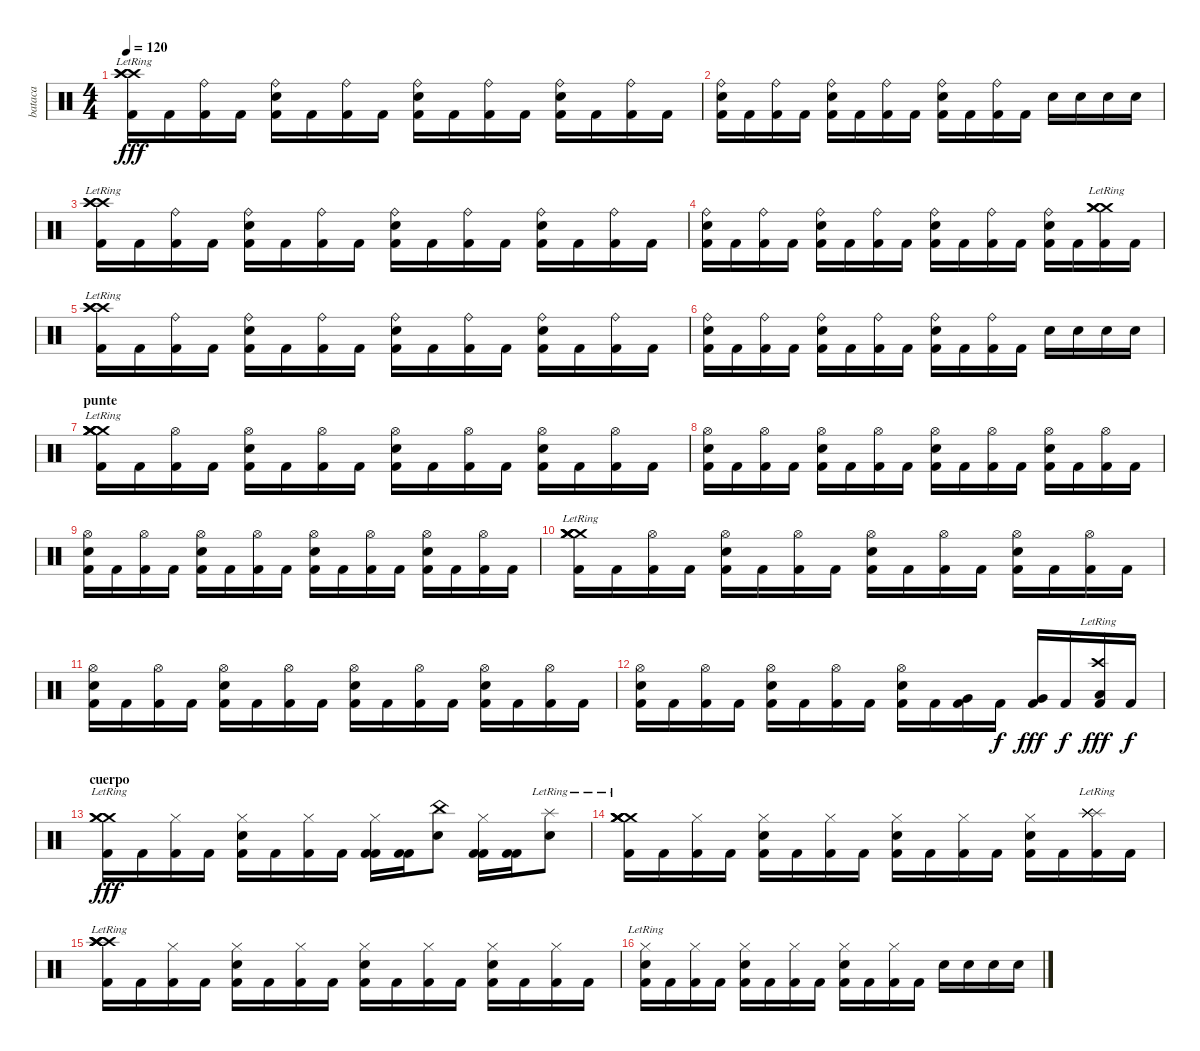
\track ("bataca" "bataca") {instrument percussion}
\staff {score}
\articulation defaults
\ts (4 4)
\tempo 120
\clef neutral
\ks c
("Kick (hit) 2" "Crash high (hit)"{lr} "Crash high (hit)"{lr} "Crash high (hit)"{lr}).16{dy fff} "Kick (hit) 2".16 ("Kick (hit) 2" "Ride (bell)").16 "Kick (hit) 2".16 ("Kick (hit) 2" "Ride (bell)" "Electric Snare (hit)").16 "Kick (hit) 2".16 ("Kick (hit) 2" "Ride (bell)").16 "Kick (hit) 2".16 ("Kick (hit) 2" "Ride (bell)" "Electric Snare (hit)").16 "Kick (hit) 2".16 ("Kick (hit) 2" "Ride (bell)").16 "Kick (hit) 2".16 ("Kick (hit) 2" "Ride (bell)" "Electric Snare (hit)").16 "Kick (hit) 2".16 ("Kick (hit) 2" "Ride (bell)").16 "Kick (hit) 2".16 |
("Kick (hit) 2" "Ride (bell)" "Electric Snare (hit)").16 "Kick (hit) 2".16 ("Kick (hit) 2" "Ride (bell)").16 "Kick (hit) 2".16 ("Kick (hit) 2" "Ride (bell)" "Electric Snare (hit)").16 "Kick (hit) 2".16 ("Kick (hit) 2" "Ride (bell)").16 "Kick (hit) 2".16 ("Kick (hit) 2" "Ride (bell)" "Electric Snare (hit)").16 "Kick (hit) 2".16 ("Kick (hit) 2" "Ride (bell)").16 "Kick (hit) 2".16 "Electric Snare (hit)".16 "Electric Snare (hit)".16 "Electric Snare (hit)".16 "Electric Snare (hit)".16 |
("Kick (hit) 2" "Crash high (hit)"{lr} "Crash high (hit)"{lr} "Crash high (hit)"{lr}).16 "Kick (hit) 2".16 ("Kick (hit) 2" "Ride (bell)").16 "Kick (hit) 2".16 ("Kick (hit) 2" "Ride (bell)" "Electric Snare (hit)").16 "Kick (hit) 2".16 ("Kick (hit) 2" "Ride (bell)").16 "Kick (hit) 2".16 ("Kick (hit) 2" "Ride (bell)" "Electric Snare (hit)").16 "Kick (hit) 2".16 ("Kick (hit) 2" "Ride (bell)").16 "Kick (hit) 2".16 ("Kick (hit) 2" "Ride (bell)" "Electric Snare (hit)").16 "Kick (hit) 2".16 ("Kick (hit) 2" "Ride (bell)").16 "Kick (hit) 2".16 |
("Kick (hit) 2" "Ride (bell)" "Electric Snare (hit)").16 "Kick (hit) 2".16 ("Kick (hit) 2" "Ride (bell)").16 "Kick (hit) 2".16 ("Kick (hit) 2" "Ride (bell)" "Electric Snare (hit)").16 "Kick (hit) 2".16 ("Kick (hit) 2" "Ride (bell)").16 "Kick (hit) 2".16 ("Kick (hit) 2" "Ride (bell)" "Electric Snare (hit)").16 "Kick (hit) 2".16 ("Kick (hit) 2" "Ride (bell)").16 "Kick (hit) 2".16 ("Kick (hit) 2" "Ride (bell)" "Electric Snare (hit)").16 "Kick (hit) 2".16 ("Kick (hit) 2" "Crash medium (hit)"{lr} "Crash medium (hit)"{lr} "Crash medium (hit)"{lr}).16 "Kick (hit) 2".16 |
("Kick (hit) 2" "Crash high (hit)"{lr} "Crash high (hit)"{lr} "Crash high (hit)"{lr}).16 "Kick (hit) 2".16 ("Kick (hit) 2" "Ride (bell)").16 "Kick (hit) 2".16 ("Kick (hit) 2" "Ride (bell)" "Electric Snare (hit)").16 "Kick (hit) 2".16 ("Kick (hit) 2" "Ride (bell)").16 "Kick (hit) 2".16 ("Kick (hit) 2" "Ride (bell)" "Electric Snare (hit)").16 "Kick (hit) 2".16 ("Kick (hit) 2" "Ride (bell)").16 "Kick (hit) 2".16 ("Kick (hit) 2" "Ride (bell)" "Electric Snare (hit)").16 "Kick (hit) 2".16 ("Kick (hit) 2" "Ride (bell)").16 "Kick (hit) 2".16 |
("Kick (hit) 2" "Ride (bell)" "Electric Snare (hit)").16 "Kick (hit) 2".16 ("Kick (hit) 2" "Ride (bell)").16 "Kick (hit) 2".16 ("Kick (hit) 2" "Ride (bell)" "Electric Snare (hit)").16 "Kick (hit) 2".16 ("Kick (hit) 2" "Ride (bell)").16 "Kick (hit) 2".16 ("Kick (hit) 2" "Ride (bell)" "Electric Snare (hit)").16 "Kick (hit) 2".16 ("Kick (hit) 2" "Ride (bell)").16 "Kick (hit) 2".16 "Electric Snare (hit)".16 "Electric Snare (hit)".16 "Electric Snare (hit)".16 "Electric Snare (hit)".16 |
\section ("" "punte")
("Kick (hit) 2" "Crash medium (hit)"{lr} "Crash medium (hit)"{lr} "Crash medium (hit)"{lr} "Crash medium (hit)"{lr} "Crash medium (hit)").16 "Kick (hit) 2".16 ("Kick (hit) 2" "Hi-Hat (open)").16 "Kick (hit) 2".16 ("Kick (hit) 2" "Hi-Hat (open)" "Electric Snare (hit)").16 "Kick (hit) 2".16 ("Kick (hit) 2" "Hi-Hat (open)").16 "Kick (hit) 2".16 ("Kick (hit) 2" "Hi-Hat (open)" "Electric Snare (hit)").16 "Kick (hit) 2".16 ("Kick (hit) 2" "Hi-Hat (open)").16 "Kick (hit) 2".16 ("Kick (hit) 2" "Hi-Hat (open)" "Electric Snare (hit)").16 "Kick (hit) 2".16 ("Kick (hit) 2" "Hi-Hat (open)").16 "Kick (hit) 2".16 |
("Kick (hit) 2" "Hi-Hat (open)" "Electric Snare (hit)").16 "Kick (hit) 2".16 ("Kick (hit) 2" "Hi-Hat (open)").16 "Kick (hit) 2".16 ("Kick (hit) 2" "Hi-Hat (open)" "Electric Snare (hit)").16 "Kick (hit) 2".16 ("Kick (hit) 2" "Hi-Hat (open)").16 "Kick (hit) 2".16 ("Kick (hit) 2" "Hi-Hat (open)" "Electric Snare (hit)").16 "Kick (hit) 2".16 ("Kick (hit) 2" "Hi-Hat (open)").16 "Kick (hit) 2".16 ("Kick (hit) 2" "Hi-Hat (open)" "Electric Snare (hit)").16 "Kick (hit) 2".16 ("Kick (hit) 2" "Hi-Hat (open)").16 "Kick (hit) 2".16 |
("Kick (hit) 2" "Hi-Hat (open)" "Electric Snare (hit)").16 "Kick (hit) 2".16 ("Kick (hit) 2" "Hi-Hat (open)").16 "Kick (hit) 2".16 ("Kick (hit) 2" "Hi-Hat (open)" "Electric Snare (hit)").16 "Kick (hit) 2".16 ("Kick (hit) 2" "Hi-Hat (open)").16 "Kick (hit) 2".16 ("Kick (hit) 2" "Hi-Hat (open)" "Electric Snare (hit)").16 "Kick (hit) 2".16 ("Kick (hit) 2" "Hi-Hat (open)").16 "Kick (hit) 2".16 ("Kick (hit) 2" "Hi-Hat (open)" "Electric Snare (hit)").16 "Kick (hit) 2".16 ("Kick (hit) 2" "Hi-Hat (open)").16 "Kick (hit) 2".16 |
("Kick (hit) 2" "Crash medium (hit)"{lr} "Crash medium (hit)"{lr} "Crash medium (hit)"{lr} "Crash medium (hit)"{lr} "Crash medium (hit)").16 "Kick (hit) 2".16 ("Kick (hit) 2" "Hi-Hat (open)").16 "Kick (hit) 2".16 ("Kick (hit) 2" "Hi-Hat (open)" "Electric Snare (hit)").16 "Kick (hit) 2".16 ("Kick (hit) 2" "Hi-Hat (open)").16 "Kick (hit) 2".16 ("Kick (hit) 2" "Hi-Hat (open)" "Electric Snare (hit)").16 "Kick (hit) 2".16 ("Kick (hit) 2" "Hi-Hat (open)").16 "Kick (hit) 2".16 ("Kick (hit) 2" "Hi-Hat (open)" "Electric Snare (hit)").16 "Kick (hit) 2".16 ("Kick (hit) 2" "Hi-Hat (open)").16 "Kick (hit) 2".16 |
("Kick (hit) 2" "Hi-Hat (open)" "Electric Snare (hit)").16 "Kick (hit) 2".16 ("Kick (hit) 2" "Hi-Hat (open)").16 "Kick (hit) 2".16 ("Kick (hit) 2" "Hi-Hat (open)" "Electric Snare (hit)").16 "Kick (hit) 2".16 ("Kick (hit) 2" "Hi-Hat (open)").16 "Kick (hit) 2".16 ("Kick (hit) 2" "Hi-Hat (open)" "Electric Snare (hit)").16 "Kick (hit) 2".16 ("Kick (hit) 2" "Hi-Hat (open)").16 "Kick (hit) 2".16 ("Kick (hit) 2" "Hi-Hat (open)" "Electric Snare (hit)").16 "Kick (hit) 2".16 ("Kick (hit) 2" "Hi-Hat (open)").16 "Kick (hit) 2".16 |
("Kick (hit) 2" "Hi-Hat (open)" "Electric Snare (hit)").16 "Kick (hit) 2".16 ("Kick (hit) 2" "Hi-Hat (open)").16 "Kick (hit) 2".16 ("Kick (hit) 2" "Hi-Hat (open)" "Electric Snare (hit)").16 "Kick (hit) 2".16 ("Kick (hit) 2" "Hi-Hat (open)").16 "Kick (hit) 2".16 ("Kick (hit) 2" "Hi-Hat (open)" "Electric Snare (hit)").16 "Kick (hit) 2".16 ("Very Low Tom (hit)" "Kick (hit) 2").16 "Kick (hit) 2".16{dy f} ("Very Low Tom (hit)" "Kick (hit) 2").16{dy fff} "Kick (hit) 2".16{dy f} ("Low Floor Tom (hit)" "Kick (hit) 2" "Crash high (hit)"{lr}).16{dy fff} "Kick (hit) 2".16{dy f} |
\section ("" "cuerpo")
("Kick (hit) 2" "Crash medium (hit)"{lr} "Crash medium (hit)"{lr} "Crash medium (hit)"{lr}).16{dy fff} "Kick (hit) 2".16 ("Kick (hit) 2" "Hi-Hat (closed)").16 "Kick (hit) 2".16 ("Kick (hit) 2" "Hi-Hat (closed)" "Electric Snare (hit)").16 "Kick (hit) 2".16 ("Kick (hit) 2" "Hi-Hat (closed)").16 "Kick (hit) 2".16 ("Kick (hit) 2" "Hi-Hat (closed)" "Kick (hit) 2").16 ("Kick (hit) 2" "Kick (hit) 2").16 ("China (hit)" "Electric Snare (hit)").8 ("Kick (hit) 2" "Hi-Hat (closed)" "Kick (hit) 2").16 ("Kick (hit) 2" "Kick (hit) 2").16 ("Splash (hit)"{lr} "Electric Snare (hit)").8 |
("Kick (hit) 2" "Crash medium (hit)"{lr} "Crash medium (hit)"{lr} "Crash medium (hit)"{lr} "Crash medium (hit)"{lr} "Crash medium (hit)").16 "Kick (hit) 2".16 ("Kick (hit) 2" "Hi-Hat (closed)").16 "Kick (hit) 2".16 ("Kick (hit) 2" "Hi-Hat (closed)" "Electric Snare (hit)").16 "Kick (hit) 2".16 ("Kick (hit) 2" "Hi-Hat (closed)").16 "Kick (hit) 2".16 ("Kick (hit) 2" "Hi-Hat (closed)" "Electric Snare (hit)").16 "Kick (hit) 2".16 ("Kick (hit) 2" "Hi-Hat (closed)").16 "Kick (hit) 2".16 ("Kick (hit) 2" "Hi-Hat (closed)" "Electric Snare (hit)").16 "Kick (hit) 2".16 ("Kick (hit) 2" "Splash (hit)"{lr} "Splash (hit)"{lr} "Splash (hit)"{lr} "Splash (hit)"{lr} "Splash (hit)"{lr}).16 "Kick (hit) 2".16 |
("Kick (hit) 2" "Crash high (hit)"{lr} "Crash high (hit)"{lr} "Crash high (hit)"{lr} "Crash high (hit)"{lr} "Crash high (hit)"{lr}).16 "Kick (hit) 2".16 ("Kick (hit) 2" "Hi-Hat (closed)").16 "Kick (hit) 2".16 ("Kick (hit) 2" "Hi-Hat (closed)" "Electric Snare (hit)").16 "Kick (hit) 2".16 ("Kick (hit) 2" "Hi-Hat (closed)").16 "Kick (hit) 2".16 ("Kick (hit) 2" "Hi-Hat (closed)" "Electric Snare (hit)").16 "Kick (hit) 2".16 ("Kick (hit) 2" "Hi-Hat (closed)").16 "Kick (hit) 2".16 ("Kick (hit) 2" "Hi-Hat (closed)" "Electric Snare (hit)").16 "Kick (hit) 2".16 ("Kick (hit) 2" "Hi-Hat (closed)").16 "Kick (hit) 2".16 |
("Kick (hit) 2" "Hi-Hat (closed)"{lr} "Electric Snare (hit)").16 "Kick (hit) 2".16 ("Kick (hit) 2" "Hi-Hat (closed)").16 "Kick (hit) 2".16 ("Kick (hit) 2" "Hi-Hat (closed)" "Electric Snare (hit)").16 "Kick (hit) 2".16 ("Kick (hit) 2" "Hi-Hat (closed)").16 "Kick (hit) 2".16 ("Kick (hit) 2" "Hi-Hat (closed)" "Electric Snare (hit)").16 "Kick (hit) 2".16 ("Kick (hit) 2" "Hi-Hat (closed)").16 "Kick (hit) 2".16 "Electric Snare (hit)".16 "Electric Snare (hit)".16 "Electric Snare (hit)".16 "Electric Snare (hit)".16
